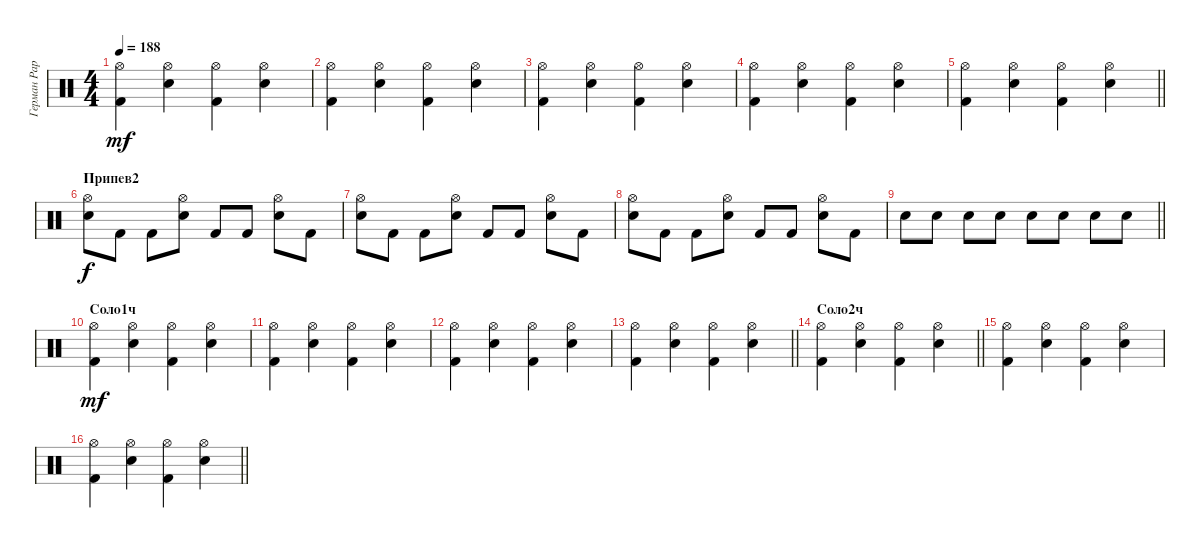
\track ("Герман Раребелл, ударные" "Герман Рар") {instrument percussion}
\staff {score}
\articulation defaults
\ts (4 4)
\tempo 188
\clef neutral
\ks c
("Hi-Hat (open)" "Kick (hit) 2").4{dy mf} ("Hi-Hat (open)" "Snare (hit) 2").4 ("Hi-Hat (open)" "Kick (hit) 2").4 ("Hi-Hat (open)" "Snare (hit) 2").4 |
("Hi-Hat (open)" "Kick (hit) 2").4 ("Hi-Hat (open)" "Snare (hit) 2").4 ("Hi-Hat (open)" "Kick (hit) 2").4 ("Hi-Hat (open)" "Snare (hit) 2").4 |
("Hi-Hat (open)" "Kick (hit) 2").4 ("Hi-Hat (open)" "Snare (hit) 2").4 ("Hi-Hat (open)" "Kick (hit) 2").4 ("Hi-Hat (open)" "Snare (hit) 2").4 |
("Hi-Hat (open)" "Kick (hit) 2").4 ("Hi-Hat (open)" "Snare (hit) 2").4 ("Hi-Hat (open)" "Kick (hit) 2").4 ("Hi-Hat (open)" "Snare (hit) 2").4 |
\barLineRight lightlight
("Hi-Hat (open)" "Kick (hit) 2").4 ("Hi-Hat (open)" "Snare (hit) 2").4 ("Hi-Hat (open)" "Kick (hit) 2").4 ("Hi-Hat (open)" "Snare (hit) 2").4 |
\section ("" "Припев2")
("Snare (hit) 2" "Hi-Hat (open)").8{dy f} "Kick (hit) 2".8 "Kick (hit) 2".8 ("Snare (hit) 2" "Hi-Hat (open)").8 "Kick (hit) 2".8 "Kick (hit) 2".8 ("Snare (hit) 2" "Hi-Hat (open)").8 "Kick (hit) 2".8 |
("Snare (hit) 2" "Hi-Hat (open)").8 "Kick (hit) 2".8 "Kick (hit) 2".8 ("Snare (hit) 2" "Hi-Hat (open)").8 "Kick (hit) 2".8 "Kick (hit) 2".8 ("Snare (hit) 2" "Hi-Hat (open)").8 "Kick (hit) 2".8 |
("Snare (hit) 2" "Hi-Hat (open)").8 "Kick (hit) 2".8 "Kick (hit) 2".8 ("Snare (hit) 2" "Hi-Hat (open)").8 "Kick (hit) 2".8 "Kick (hit) 2".8 ("Snare (hit) 2" "Hi-Hat (open)").8 "Kick (hit) 2".8 |
\barLineRight lightlight "Snare (hit) 2".8 "Snare (hit) 2".8 "Snare (hit) 2".8 "Snare (hit) 2".8 "Snare (hit) 2".8 "Snare (hit) 2".8 "Snare (hit) 2".8 "Snare (hit) 2".8
|
\section ("" "Соло1ч")
("Hi-Hat (open)" "Kick (hit) 2").4{dy mf} ("Hi-Hat (open)" "Snare (hit) 2").4 ("Hi-Hat (open)" "Kick (hit) 2").4 ("Hi-Hat (open)" "Snare (hit) 2").4 |
("Hi-Hat (open)" "Kick (hit) 2").4 ("Hi-Hat (open)" "Snare (hit) 2").4 ("Hi-Hat (open)" "Kick (hit) 2").4 ("Hi-Hat (open)" "Snare (hit) 2").4 |
("Hi-Hat (open)" "Kick (hit) 2").4 ("Hi-Hat (open)" "Snare (hit) 2").4 ("Hi-Hat (open)" "Kick (hit) 2").4 ("Hi-Hat (open)" "Snare (hit) 2").4 |
\barLineRight lightlight
("Hi-Hat (open)" "Kick (hit) 2").4 ("Hi-Hat (open)" "Snare (hit) 2").4 ("Hi-Hat (open)" "Kick (hit) 2").4 ("Hi-Hat (open)" "Snare (hit) 2").4 |
\section ("" "Соло2ч")
\barLineRight lightlight
("Hi-Hat (open)" "Kick (hit) 2").4 ("Hi-Hat (open)" "Snare (hit) 2").4 ("Hi-Hat (open)" "Kick (hit) 2").4 ("Hi-Hat (open)" "Snare (hit) 2").4 |
("Hi-Hat (open)" "Kick (hit) 2").4 ("Hi-Hat (open)" "Snare (hit) 2").4 ("Hi-Hat (open)" "Kick (hit) 2").4 ("Hi-Hat (open)" "Snare (hit) 2").4 |
\barLineRight lightlight
("Hi-Hat (open)" "Kick (hit) 2").4 ("Hi-Hat (open)" "Snare (hit) 2").4 ("Hi-Hat (open)" "Kick (hit) 2").4 ("Hi-Hat (open)" "Snare (hit) 2").4
